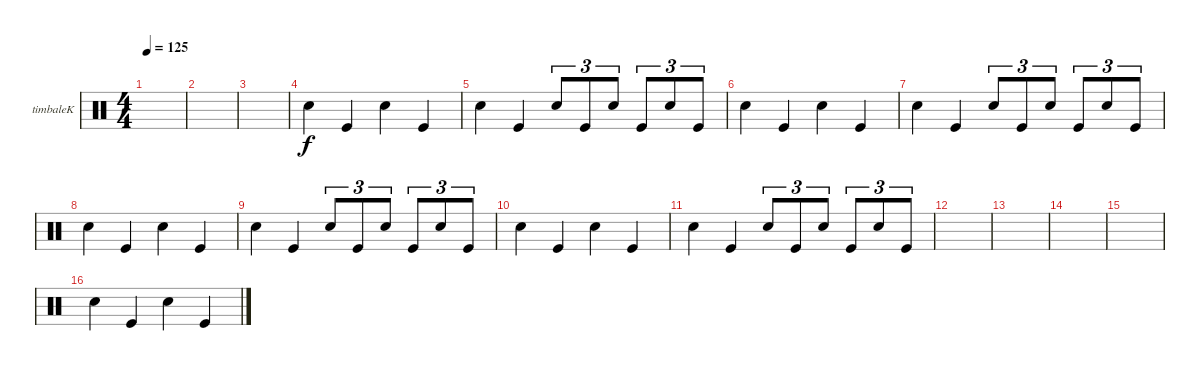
\defaultSystemsLayout 4
\bracketExtendMode groupsimilarinstruments
\firstSystemTrackNameOrientation horizontal
\otherSystemsTrackNameOrientation horizontal
\track ("Timbale" "timbaleK") {instrument percussion}
\staff {score}
\articulation defaults
\ts (4 4)
\tempo 125
\clef neutral
\scale
0.333333
\ks c
|
\scale
0.333333 |
\scale
0.333333 |
\scale
0.333333 "Snare (hit) 2".4 "Kick (hit)".4 "Snare (hit) 2".4 "Kick (hit)".4 |
\scale
0.333333 "Snare (hit) 2".4 "Kick (hit)".4 "Snare (hit) 2".8{tu (3 2)} "Kick (hit)".8{tu (3 2)} "Snare (hit) 2".8{tu (3 2)} "Kick (hit)".8{tu (3 2)} "Snare (hit) 2".8{tu (3 2)} "Kick (hit)".8{tu (3 2)} |
\scale
0.333333 "Snare (hit) 2".4 "Kick (hit)".4 "Snare (hit) 2".4 "Kick (hit)".4 |
\scale
0.333333 "Snare (hit) 2".4 "Kick (hit)".4 "Snare (hit) 2".8{tu (3 2)} "Kick (hit)".8{tu (3 2)} "Snare (hit) 2".8{tu (3 2)} "Kick (hit)".8{tu (3 2)} "Snare (hit) 2".8{tu (3 2)} "Kick (hit)".8{tu (3 2)} |
\scale
0.333333 "Snare (hit) 2".4 "Kick (hit)".4 "Snare (hit) 2".4 "Kick (hit)".4 |
\scale
0.333333 "Snare (hit) 2".4 "Kick (hit)".4 "Snare (hit) 2".8{tu (3 2)} "Kick (hit)".8{tu (3 2)} "Snare (hit) 2".8{tu (3 2)} "Kick (hit)".8{tu (3 2)} "Snare (hit) 2".8{tu (3 2)} "Kick (hit)".8{tu (3 2)} |
\scale
0.333333 "Snare (hit) 2".4 "Kick (hit)".4 "Snare (hit) 2".4 "Kick (hit)".4 |
\scale
0.333333 "Snare (hit) 2".4 "Kick (hit)".4 "Snare (hit) 2".8{tu (3 2)} "Kick (hit)".8{tu (3 2)} "Snare (hit) 2".8{tu (3 2)} "Kick (hit)".8{tu (3 2)} "Snare (hit) 2".8{tu (3 2)} "Kick (hit)".8{tu (3 2)} |
\scale
0.333333 |
\scale
0.333333 |
\scale
0.333333 |
\scale
0.333333 |
\scale
0.333333 "Snare (hit) 2".4 "Kick (hit)".4 "Snare (hit) 2".4 "Kick (hit)".4
